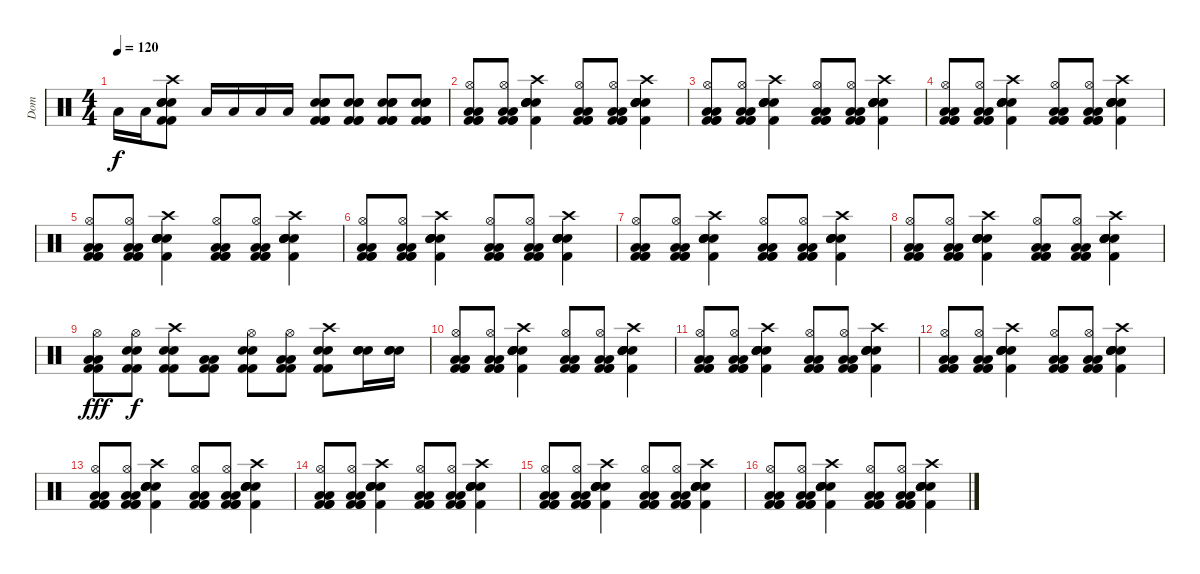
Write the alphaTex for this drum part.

\track ("Dom" "Dom") {instrument percussion}
\staff {score}
\articulation defaults
\ts (4 4)
\tempo 120
\clef neutral
\ks c "Low Tom (hit)".16{dy f} "Low Tom (hit)".16
("Electric Snare (hit)" "Electric Snare (hit)" "Electric Snare (hit)" "Kick (hit) 2" "Kick (hit) 2" "Crash high (hit)").8 "Low Tom (hit)".16 "Low Tom (hit)".16 "Low Tom (hit)".16 "Low Tom (hit)".16 ("Electric Snare (hit)" "Electric Snare (hit)" "Electric Snare (hit)" "Kick (hit) 2" "Kick (hit) 2" "Kick (hit) 2").8 ("Electric Snare (hit)" "Electric Snare (hit)" "Electric Snare (hit)" "Kick (hit) 2" "Kick (hit) 2" "Kick (hit) 2").8 ("Electric Snare (hit)" "Electric Snare (hit)" "Electric Snare (hit)" "Kick (hit) 2" "Kick (hit) 2" "Kick (hit) 2").8 ("Electric Snare (hit)" "Electric Snare (hit)" "Electric Snare (hit)" "Kick (hit) 2" "Kick (hit) 2" "Kick (hit) 2").8 |
("Hi-Hat (open)" "Low Floor Tom (hit)" "Low Floor Tom (hit)" "Kick (hit) 2" "Kick (hit) 2" "Kick (hit) 2").8 ("Hi-Hat (open)" "Low Floor Tom (hit)" "Low Floor Tom (hit)" "Kick (hit) 2" "Kick (hit) 2" "Kick (hit) 2").8 ("Crash high (hit)" "Electric Snare (hit)" "Electric Snare (hit)" "Electric Snare (hit)" "Electric Snare (hit)" "Kick (hit) 2").4 ("Hi-Hat (open)" "Low Floor Tom (hit)" "Low Floor Tom (hit)" "Kick (hit) 2" "Kick (hit) 2" "Kick (hit) 2").8 ("Hi-Hat (open)" "Low Floor Tom (hit)" "Low Floor Tom (hit)" "Kick (hit) 2" "Kick (hit) 2" "Kick (hit) 2").8 ("Crash high (hit)" "Electric Snare (hit)" "Electric Snare (hit)" "Electric Snare (hit)" "Electric Snare (hit)" "Kick (hit) 2").4 |
("Hi-Hat (open)" "Low Floor Tom (hit)" "Low Floor Tom (hit)" "Kick (hit) 2" "Kick (hit) 2" "Kick (hit) 2").8 ("Hi-Hat (open)" "Low Floor Tom (hit)" "Low Floor Tom (hit)" "Kick (hit) 2" "Kick (hit) 2" "Kick (hit) 2").8 ("Crash high (hit)" "Electric Snare (hit)" "Electric Snare (hit)" "Electric Snare (hit)" "Electric Snare (hit)" "Kick (hit) 2").4 ("Hi-Hat (open)" "Low Floor Tom (hit)" "Low Floor Tom (hit)" "Kick (hit) 2" "Kick (hit) 2" "Kick (hit) 2").8 ("Hi-Hat (open)" "Low Floor Tom (hit)" "Low Floor Tom (hit)" "Kick (hit) 2" "Kick (hit) 2" "Kick (hit) 2").8 ("Crash high (hit)" "Electric Snare (hit)" "Electric Snare (hit)" "Electric Snare (hit)" "Electric Snare (hit)" "Kick (hit) 2").4 |
("Hi-Hat (open)" "Low Floor Tom (hit)" "Low Floor Tom (hit)" "Kick (hit) 2" "Kick (hit) 2" "Kick (hit) 2").8 ("Hi-Hat (open)" "Low Floor Tom (hit)" "Low Floor Tom (hit)" "Kick (hit) 2" "Kick (hit) 2" "Kick (hit) 2").8 ("Crash high (hit)" "Electric Snare (hit)" "Electric Snare (hit)" "Electric Snare (hit)" "Electric Snare (hit)" "Kick (hit) 2").4 ("Hi-Hat (open)" "Low Floor Tom (hit)" "Low Floor Tom (hit)" "Kick (hit) 2" "Kick (hit) 2" "Kick (hit) 2").8 ("Hi-Hat (open)" "Low Floor Tom (hit)" "Low Floor Tom (hit)" "Kick (hit) 2" "Kick (hit) 2" "Kick (hit) 2").8 ("Crash high (hit)" "Electric Snare (hit)" "Electric Snare (hit)" "Electric Snare (hit)" "Electric Snare (hit)" "Kick (hit) 2").4 |
("Hi-Hat (open)" "Low Floor Tom (hit)" "Low Floor Tom (hit)" "Kick (hit) 2" "Kick (hit) 2" "Kick (hit) 2").8 ("Hi-Hat (open)" "Low Floor Tom (hit)" "Low Floor Tom (hit)" "Kick (hit) 2" "Kick (hit) 2" "Kick (hit) 2").8 ("Crash high (hit)" "Electric Snare (hit)" "Electric Snare (hit)" "Electric Snare (hit)" "Electric Snare (hit)" "Kick (hit) 2").4 ("Hi-Hat (open)" "Low Floor Tom (hit)" "Low Floor Tom (hit)" "Kick (hit) 2" "Kick (hit) 2" "Kick (hit) 2").8 ("Hi-Hat (open)" "Low Floor Tom (hit)" "Low Floor Tom (hit)" "Kick (hit) 2" "Kick (hit) 2" "Kick (hit) 2").8 ("Crash high (hit)" "Electric Snare (hit)" "Electric Snare (hit)" "Electric Snare (hit)" "Electric Snare (hit)" "Kick (hit) 2").4 |
("Hi-Hat (open)" "Low Floor Tom (hit)" "Low Floor Tom (hit)" "Kick (hit) 2" "Kick (hit) 2" "Kick (hit) 2").8 ("Hi-Hat (open)" "Low Floor Tom (hit)" "Low Floor Tom (hit)" "Kick (hit) 2" "Kick (hit) 2" "Kick (hit) 2").8 ("Crash high (hit)" "Electric Snare (hit)" "Electric Snare (hit)" "Electric Snare (hit)" "Electric Snare (hit)" "Kick (hit) 2").4 ("Hi-Hat (open)" "Low Floor Tom (hit)" "Low Floor Tom (hit)" "Kick (hit) 2" "Kick (hit) 2" "Kick (hit) 2").8 ("Hi-Hat (open)" "Low Floor Tom (hit)" "Low Floor Tom (hit)" "Kick (hit) 2" "Kick (hit) 2" "Kick (hit) 2").8 ("Crash high (hit)" "Electric Snare (hit)" "Electric Snare (hit)" "Electric Snare (hit)" "Electric Snare (hit)" "Kick (hit) 2").4 |
("Hi-Hat (open)" "Low Floor Tom (hit)" "Low Floor Tom (hit)" "Kick (hit) 2" "Kick (hit) 2" "Kick (hit) 2").8 ("Hi-Hat (open)" "Low Floor Tom (hit)" "Low Floor Tom (hit)" "Kick (hit) 2" "Kick (hit) 2" "Kick (hit) 2").8 ("Crash high (hit)" "Electric Snare (hit)" "Electric Snare (hit)" "Electric Snare (hit)" "Electric Snare (hit)" "Kick (hit) 2").4 ("Hi-Hat (open)" "Low Floor Tom (hit)" "Low Floor Tom (hit)" "Kick (hit) 2" "Kick (hit) 2" "Kick (hit) 2").8 ("Hi-Hat (open)" "Low Floor Tom (hit)" "Low Floor Tom (hit)" "Kick (hit) 2" "Kick (hit) 2" "Kick (hit) 2").8 ("Crash high (hit)" "Electric Snare (hit)" "Electric Snare (hit)" "Electric Snare (hit)" "Electric Snare (hit)" "Kick (hit) 2").4 |
("Hi-Hat (open)" "Low Floor Tom (hit)" "Low Floor Tom (hit)" "Kick (hit) 2" "Kick (hit) 2" "Kick (hit) 2").8 ("Hi-Hat (open)" "Low Floor Tom (hit)" "Low Floor Tom (hit)" "Kick (hit) 2" "Kick (hit) 2" "Kick (hit) 2").8 ("Crash high (hit)" "Electric Snare (hit)" "Electric Snare (hit)" "Electric Snare (hit)" "Electric Snare (hit)" "Kick (hit) 2").4 ("Hi-Hat (open)" "Low Floor Tom (hit)" "Low Floor Tom (hit)" "Kick (hit) 2" "Kick (hit) 2" "Kick (hit) 2").8 ("Hi-Hat (open)" "Low Floor Tom (hit)" "Low Floor Tom (hit)" "Kick (hit) 2" "Kick (hit) 2" "Kick (hit) 2").8 ("Crash high (hit)" "Electric Snare (hit)" "Electric Snare (hit)" "Electric Snare (hit)" "Electric Snare (hit)" "Kick (hit) 2").4 |
("Hi-Hat (open)" "Low Floor Tom (hit)" "Low Floor Tom (hit)" "Kick (hit) 2" "Kick (hit) 2").8{dy fff} ("Hi-Hat (open)" "Electric Snare (hit)" "Electric Snare (hit)" "Kick (hit) 2" "Kick (hit) 2").8{dy f} ("Crash high (hit)" "Electric Snare (hit)" "Electric Snare (hit)" "Kick (hit) 2" "Kick (hit) 2").8 ("Low Floor Tom (hit)" "Low Floor Tom (hit)" "Kick (hit) 2" "Kick (hit) 2").8 ("Hi-Hat (open)" "Electric Snare (hit)" "Electric Snare (hit)" "Kick (hit) 2" "Kick (hit) 2").8 ("Hi-Hat (open)" "Low Floor Tom (hit)" "Low Floor Tom (hit)" "Kick (hit) 2" "Kick (hit) 2").8 ("Crash high (hit)" "Electric Snare (hit)" "Electric Snare (hit)" "Kick (hit) 2" "Kick (hit) 2").8 ("Electric Snare (hit)" "Electric Snare (hit)" "Electric Snare (hit)").16 ("Electric Snare (hit)" "Electric Snare (hit)" "Electric Snare (hit)").16 |
("Hi-Hat (open)" "Low Floor Tom (hit)" "Low Floor Tom (hit)" "Kick (hit) 2" "Kick (hit) 2" "Kick (hit) 2").8 ("Hi-Hat (open)" "Low Floor Tom (hit)" "Low Floor Tom (hit)" "Kick (hit) 2" "Kick (hit) 2" "Kick (hit) 2").8 ("Crash high (hit)" "Electric Snare (hit)" "Electric Snare (hit)" "Electric Snare (hit)" "Electric Snare (hit)" "Kick (hit) 2").4 ("Hi-Hat (open)" "Low Floor Tom (hit)" "Low Floor Tom (hit)" "Kick (hit) 2" "Kick (hit) 2" "Kick (hit) 2").8 ("Hi-Hat (open)" "Low Floor Tom (hit)" "Low Floor Tom (hit)" "Kick (hit) 2" "Kick (hit) 2" "Kick (hit) 2").8 ("Crash high (hit)" "Electric Snare (hit)" "Electric Snare (hit)" "Electric Snare (hit)" "Electric Snare (hit)" "Kick (hit) 2").4 |
("Hi-Hat (open)" "Low Floor Tom (hit)" "Low Floor Tom (hit)" "Kick (hit) 2" "Kick (hit) 2" "Kick (hit) 2").8 ("Hi-Hat (open)" "Low Floor Tom (hit)" "Low Floor Tom (hit)" "Kick (hit) 2" "Kick (hit) 2" "Kick (hit) 2").8 ("Crash high (hit)" "Electric Snare (hit)" "Electric Snare (hit)" "Electric Snare (hit)" "Electric Snare (hit)" "Kick (hit) 2").4 ("Hi-Hat (open)" "Low Floor Tom (hit)" "Low Floor Tom (hit)" "Kick (hit) 2" "Kick (hit) 2" "Kick (hit) 2").8 ("Hi-Hat (open)" "Low Floor Tom (hit)" "Low Floor Tom (hit)" "Kick (hit) 2" "Kick (hit) 2" "Kick (hit) 2").8 ("Crash high (hit)" "Electric Snare (hit)" "Electric Snare (hit)" "Electric Snare (hit)" "Electric Snare (hit)" "Kick (hit) 2").4 |
("Hi-Hat (open)" "Low Floor Tom (hit)" "Low Floor Tom (hit)" "Kick (hit) 2" "Kick (hit) 2" "Kick (hit) 2").8 ("Hi-Hat (open)" "Low Floor Tom (hit)" "Low Floor Tom (hit)" "Kick (hit) 2" "Kick (hit) 2" "Kick (hit) 2").8 ("Crash high (hit)" "Electric Snare (hit)" "Electric Snare (hit)" "Electric Snare (hit)" "Electric Snare (hit)" "Kick (hit) 2").4 ("Hi-Hat (open)" "Low Floor Tom (hit)" "Low Floor Tom (hit)" "Kick (hit) 2" "Kick (hit) 2" "Kick (hit) 2").8 ("Hi-Hat (open)" "Low Floor Tom (hit)" "Low Floor Tom (hit)" "Kick (hit) 2" "Kick (hit) 2" "Kick (hit) 2").8 ("Crash high (hit)" "Electric Snare (hit)" "Electric Snare (hit)" "Electric Snare (hit)" "Electric Snare (hit)" "Kick (hit) 2").4 |
("Hi-Hat (open)" "Low Floor Tom (hit)" "Low Floor Tom (hit)" "Kick (hit) 2" "Kick (hit) 2" "Kick (hit) 2").8 ("Hi-Hat (open)" "Low Floor Tom (hit)" "Low Floor Tom (hit)" "Kick (hit) 2" "Kick (hit) 2" "Kick (hit) 2").8 ("Crash high (hit)" "Electric Snare (hit)" "Electric Snare (hit)" "Electric Snare (hit)" "Electric Snare (hit)" "Kick (hit) 2").4 ("Hi-Hat (open)" "Low Floor Tom (hit)" "Low Floor Tom (hit)" "Kick (hit) 2" "Kick (hit) 2" "Kick (hit) 2").8 ("Hi-Hat (open)" "Low Floor Tom (hit)" "Low Floor Tom (hit)" "Kick (hit) 2" "Kick (hit) 2" "Kick (hit) 2").8 ("Crash high (hit)" "Electric Snare (hit)" "Electric Snare (hit)" "Electric Snare (hit)" "Electric Snare (hit)" "Kick (hit) 2").4 |
("Hi-Hat (open)" "Low Floor Tom (hit)" "Low Floor Tom (hit)" "Kick (hit) 2" "Kick (hit) 2" "Kick (hit) 2").8 ("Hi-Hat (open)" "Low Floor Tom (hit)" "Low Floor Tom (hit)" "Kick (hit) 2" "Kick (hit) 2" "Kick (hit) 2").8 ("Crash high (hit)" "Electric Snare (hit)" "Electric Snare (hit)" "Electric Snare (hit)" "Electric Snare (hit)" "Kick (hit) 2").4 ("Hi-Hat (open)" "Low Floor Tom (hit)" "Low Floor Tom (hit)" "Kick (hit) 2" "Kick (hit) 2" "Kick (hit) 2").8 ("Hi-Hat (open)" "Low Floor Tom (hit)" "Low Floor Tom (hit)" "Kick (hit) 2" "Kick (hit) 2" "Kick (hit) 2").8 ("Crash high (hit)" "Electric Snare (hit)" "Electric Snare (hit)" "Electric Snare (hit)" "Electric Snare (hit)" "Kick (hit) 2").4 |
("Hi-Hat (open)" "Low Floor Tom (hit)" "Low Floor Tom (hit)" "Kick (hit) 2" "Kick (hit) 2" "Kick (hit) 2").8 ("Hi-Hat (open)" "Low Floor Tom (hit)" "Low Floor Tom (hit)" "Kick (hit) 2" "Kick (hit) 2" "Kick (hit) 2").8 ("Crash high (hit)" "Electric Snare (hit)" "Electric Snare (hit)" "Electric Snare (hit)" "Electric Snare (hit)" "Kick (hit) 2").4 ("Hi-Hat (open)" "Low Floor Tom (hit)" "Low Floor Tom (hit)" "Kick (hit) 2" "Kick (hit) 2" "Kick (hit) 2").8 ("Hi-Hat (open)" "Low Floor Tom (hit)" "Low Floor Tom (hit)" "Kick (hit) 2" "Kick (hit) 2" "Kick (hit) 2").8 ("Crash high (hit)" "Electric Snare (hit)" "Electric Snare (hit)" "Electric Snare (hit)" "Electric Snare (hit)" "Kick (hit) 2").4 |
("Hi-Hat (open)" "Low Floor Tom (hit)" "Low Floor Tom (hit)" "Kick (hit) 2" "Kick (hit) 2" "Kick (hit) 2").8 ("Hi-Hat (open)" "Low Floor Tom (hit)" "Low Floor Tom (hit)" "Kick (hit) 2" "Kick (hit) 2" "Kick (hit) 2").8 ("Crash high (hit)" "Electric Snare (hit)" "Electric Snare (hit)" "Electric Snare (hit)" "Electric Snare (hit)" "Kick (hit) 2").4 ("Hi-Hat (open)" "Low Floor Tom (hit)" "Low Floor Tom (hit)" "Kick (hit) 2" "Kick (hit) 2" "Kick (hit) 2").8 ("Hi-Hat (open)" "Low Floor Tom (hit)" "Low Floor Tom (hit)" "Kick (hit) 2" "Kick (hit) 2" "Kick (hit) 2").8 ("Crash high (hit)" "Electric Snare (hit)" "Electric Snare (hit)" "Electric Snare (hit)" "Electric Snare (hit)" "Kick (hit) 2").4
